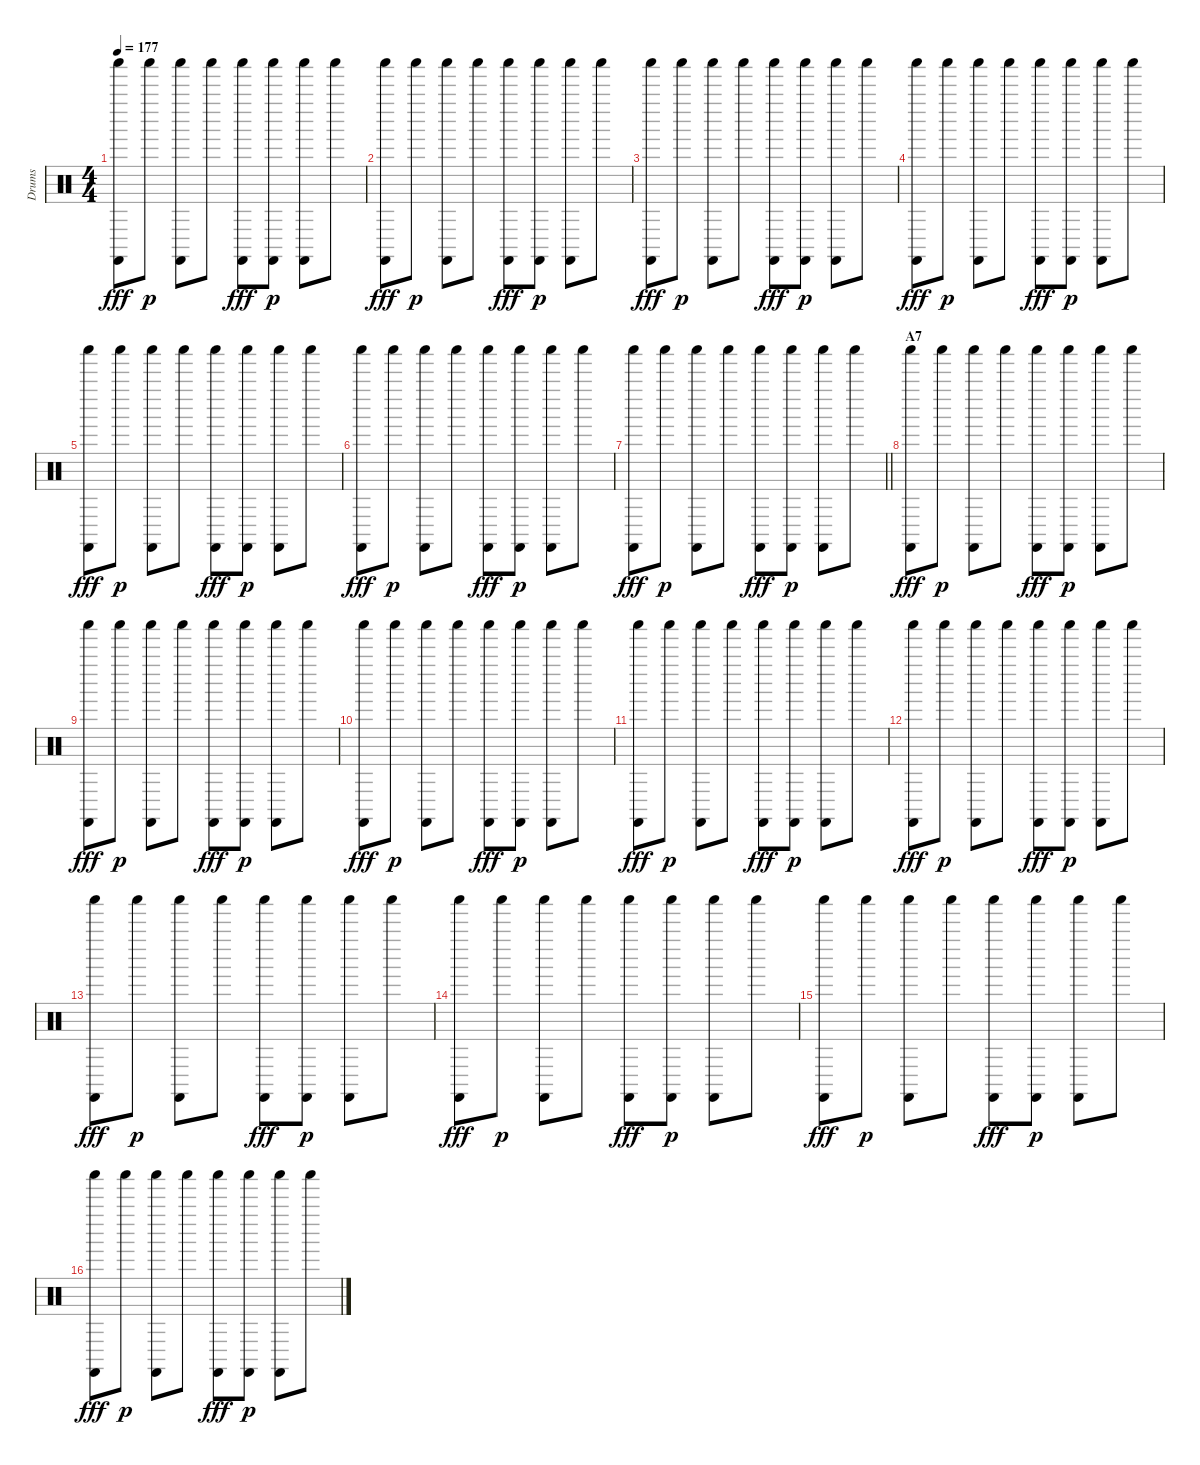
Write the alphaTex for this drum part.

\track ("Drums" "Drums") {instrument percussion}
\staff {score}
\articulation defaults
\ts (4 4)
\tempo 177
\clef neutral
\ks c
("Castanets (hit)" "Shaker (hit)").8{dy fff} "Shaker (hit)".8{dy p} ("Castanets (hit)" "Shaker (hit)").8 "Shaker (hit)".8 ("Castanets (hit)" "Shaker (hit)").8{dy fff} ("Castanets (hit)" "Shaker (hit)").8{dy p} ("Castanets (hit)" "Shaker (hit)").8 "Shaker (hit)".8 |
("Castanets (hit)" "Shaker (hit)").8{dy fff} "Shaker (hit)".8{dy p} ("Castanets (hit)" "Shaker (hit)").8 "Shaker (hit)".8 ("Castanets (hit)" "Shaker (hit)").8{dy fff} ("Castanets (hit)" "Shaker (hit)").8{dy p} ("Castanets (hit)" "Shaker (hit)").8 "Shaker (hit)".8 |
("Castanets (hit)" "Shaker (hit)").8{dy fff} "Shaker (hit)".8{dy p} ("Castanets (hit)" "Shaker (hit)").8 "Shaker (hit)".8 ("Castanets (hit)" "Shaker (hit)").8{dy fff} ("Castanets (hit)" "Shaker (hit)").8{dy p} ("Castanets (hit)" "Shaker (hit)").8 "Shaker (hit)".8 |
("Castanets (hit)" "Shaker (hit)").8{dy fff} "Shaker (hit)".8{dy p} ("Castanets (hit)" "Shaker (hit)").8 "Shaker (hit)".8 ("Castanets (hit)" "Shaker (hit)").8{dy fff} ("Castanets (hit)" "Shaker (hit)").8{dy p} ("Castanets (hit)" "Shaker (hit)").8 "Shaker (hit)".8 |
("Castanets (hit)" "Shaker (hit)").8{dy fff} "Shaker (hit)".8{dy p} ("Castanets (hit)" "Shaker (hit)").8 "Shaker (hit)".8 ("Castanets (hit)" "Shaker (hit)").8{dy fff} ("Castanets (hit)" "Shaker (hit)").8{dy p} ("Castanets (hit)" "Shaker (hit)").8 "Shaker (hit)".8 |
("Castanets (hit)" "Shaker (hit)").8{dy fff} "Shaker (hit)".8{dy p} ("Castanets (hit)" "Shaker (hit)").8 "Shaker (hit)".8 ("Castanets (hit)" "Shaker (hit)").8{dy fff} ("Castanets (hit)" "Shaker (hit)").8{dy p} ("Castanets (hit)" "Shaker (hit)").8 "Shaker (hit)".8 |
\barLineRight lightlight
("Castanets (hit)" "Shaker (hit)").8{dy fff} "Shaker (hit)".8{dy p} ("Castanets (hit)" "Shaker (hit)").8 "Shaker (hit)".8 ("Castanets (hit)" "Shaker (hit)").8{dy fff} ("Castanets (hit)" "Shaker (hit)").8{dy p} ("Castanets (hit)" "Shaker (hit)").8 "Shaker (hit)".8 |
\section ("" "A7")
("Castanets (hit)" "Shaker (hit)").8{dy fff} "Shaker (hit)".8{dy p} ("Castanets (hit)" "Shaker (hit)").8 "Shaker (hit)".8 ("Castanets (hit)" "Shaker (hit)").8{dy fff} ("Castanets (hit)" "Shaker (hit)").8{dy p} ("Castanets (hit)" "Shaker (hit)").8 "Shaker (hit)".8 |
("Castanets (hit)" "Shaker (hit)").8{dy fff} "Shaker (hit)".8{dy p} ("Castanets (hit)" "Shaker (hit)").8 "Shaker (hit)".8 ("Castanets (hit)" "Shaker (hit)").8{dy fff} ("Castanets (hit)" "Shaker (hit)").8{dy p} ("Castanets (hit)" "Shaker (hit)").8 "Shaker (hit)".8 |
("Castanets (hit)" "Shaker (hit)").8{dy fff} "Shaker (hit)".8{dy p} ("Castanets (hit)" "Shaker (hit)").8 "Shaker (hit)".8 ("Castanets (hit)" "Shaker (hit)").8{dy fff} ("Castanets (hit)" "Shaker (hit)").8{dy p} ("Castanets (hit)" "Shaker (hit)").8 "Shaker (hit)".8 |
("Castanets (hit)" "Shaker (hit)").8{dy fff} "Shaker (hit)".8{dy p} ("Castanets (hit)" "Shaker (hit)").8 "Shaker (hit)".8 ("Castanets (hit)" "Shaker (hit)").8{dy fff} ("Castanets (hit)" "Shaker (hit)").8{dy p} ("Castanets (hit)" "Shaker (hit)").8 "Shaker (hit)".8 |
("Castanets (hit)" "Shaker (hit)").8{dy fff} "Shaker (hit)".8{dy p} ("Castanets (hit)" "Shaker (hit)").8 "Shaker (hit)".8 ("Castanets (hit)" "Shaker (hit)").8{dy fff} ("Castanets (hit)" "Shaker (hit)").8{dy p} ("Castanets (hit)" "Shaker (hit)").8 "Shaker (hit)".8 |
("Castanets (hit)" "Shaker (hit)").8{dy fff} "Shaker (hit)".8{dy p} ("Castanets (hit)" "Shaker (hit)").8 "Shaker (hit)".8 ("Castanets (hit)" "Shaker (hit)").8{dy fff} ("Castanets (hit)" "Shaker (hit)").8{dy p} ("Castanets (hit)" "Shaker (hit)").8 "Shaker (hit)".8 |
("Castanets (hit)" "Shaker (hit)").8{dy fff} "Shaker (hit)".8{dy p} ("Castanets (hit)" "Shaker (hit)").8 "Shaker (hit)".8 ("Castanets (hit)" "Shaker (hit)").8{dy fff} ("Castanets (hit)" "Shaker (hit)").8{dy p} ("Castanets (hit)" "Shaker (hit)").8 "Shaker (hit)".8 |
("Castanets (hit)" "Shaker (hit)").8{dy fff} "Shaker (hit)".8{dy p} ("Castanets (hit)" "Shaker (hit)").8 "Shaker (hit)".8 ("Castanets (hit)" "Shaker (hit)").8{dy fff} ("Castanets (hit)" "Shaker (hit)").8{dy p} ("Castanets (hit)" "Shaker (hit)").8 "Shaker (hit)".8 |
("Castanets (hit)" "Shaker (hit)").8{dy fff} "Shaker (hit)".8{dy p} ("Castanets (hit)" "Shaker (hit)").8 "Shaker (hit)".8 ("Castanets (hit)" "Shaker (hit)").8{dy fff} ("Castanets (hit)" "Shaker (hit)").8{dy p} ("Castanets (hit)" "Shaker (hit)").8 "Shaker (hit)".8
